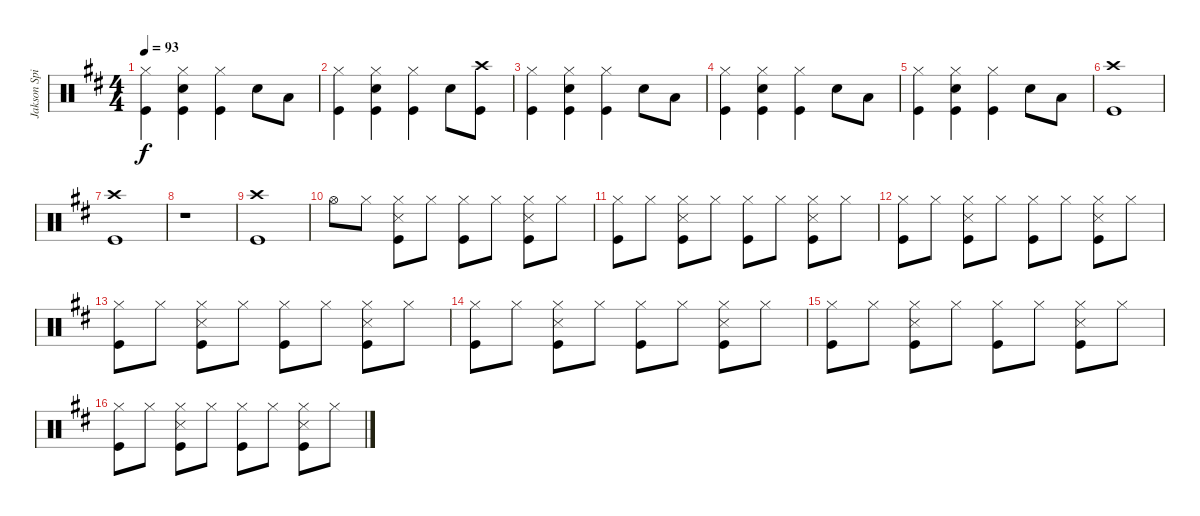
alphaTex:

\track ("Jakson Spires Drums" "Jakson Spi") {instrument percussion}
\staff {score}
\articulation defaults
\ts (4 4)
\tempo 93
\clef neutral
\ks bminor
("Hi-Hat (closed)" "Kick (hit)").4{dy f} ("Hi-Hat (closed)" "Snare (hit) 2" "Kick (hit)").4 ("Hi-Hat (closed)" "Kick (hit)").4 "Snare (hit) 2".8 "Low Tom (hit)".8 |
("Hi-Hat (closed)" "Kick (hit)").4 ("Hi-Hat (closed)" "Snare (hit) 2" "Kick (hit)").4 ("Hi-Hat (closed)" "Kick (hit)").4 "Snare (hit) 2".8 ("Crash high (hit)" "Kick (hit)").8 |
("Hi-Hat (closed)" "Kick (hit)").4 ("Hi-Hat (closed)" "Snare (hit) 2" "Kick (hit)").4 ("Hi-Hat (closed)" "Kick (hit)").4 "Snare (hit) 2".8 "Low Tom (hit)".8 |
("Hi-Hat (closed)" "Kick (hit)").4 ("Hi-Hat (closed)" "Snare (hit) 2" "Kick (hit)").4 ("Hi-Hat (closed)" "Kick (hit)").4 "Snare (hit) 2".8 "Low Tom (hit)".8 |
("Hi-Hat (closed)" "Kick (hit)").4 ("Hi-Hat (closed)" "Snare (hit) 2" "Kick (hit)").4 ("Hi-Hat (closed)" "Kick (hit)").4 "Snare (hit) 2".8 "Low Tom (hit)".8 |
("Crash high (hit)" "Kick (hit)").1 |
("Crash high (hit)" "Kick (hit)").1 |
r.1 |
("Crash high (hit)" "Kick (hit)").1 |
"Hi-Hat (open)".8 "Hi-Hat (closed)".8 ("Hi-Hat (closed)" "Snare (side stick) 3" "Kick (hit)").8 "Hi-Hat (closed)".8 ("Hi-Hat (closed)" "Kick (hit)").8 "Hi-Hat (closed)".8 ("Hi-Hat (closed)" "Snare (side stick) 3" "Kick (hit)").8 "Hi-Hat (closed)".8 |
("Hi-Hat (closed)" "Kick (hit)").8 "Hi-Hat (closed)".8 ("Hi-Hat (closed)" "Snare (side stick) 3" "Kick (hit)").8 "Hi-Hat (closed)".8 ("Hi-Hat (closed)" "Kick (hit)").8 "Hi-Hat (closed)".8 ("Hi-Hat (closed)" "Snare (side stick) 3" "Kick (hit)").8 "Hi-Hat (closed)".8 |
("Hi-Hat (closed)" "Kick (hit)").8 "Hi-Hat (closed)".8 ("Hi-Hat (closed)" "Snare (side stick) 3" "Kick (hit)").8 "Hi-Hat (closed)".8 ("Hi-Hat (closed)" "Kick (hit)").8 "Hi-Hat (closed)".8 ("Hi-Hat (closed)" "Snare (side stick) 3" "Kick (hit)").8 "Hi-Hat (closed)".8 |
("Hi-Hat (closed)" "Kick (hit)").8 "Hi-Hat (closed)".8 ("Hi-Hat (closed)" "Snare (side stick) 3" "Kick (hit)").8 "Hi-Hat (closed)".8 ("Hi-Hat (closed)" "Kick (hit)").8 "Hi-Hat (closed)".8 ("Hi-Hat (closed)" "Snare (side stick) 3" "Kick (hit)").8 "Hi-Hat (closed)".8 |
("Hi-Hat (closed)" "Kick (hit)").8 "Hi-Hat (closed)".8 ("Hi-Hat (closed)" "Snare (side stick) 3" "Kick (hit)").8 "Hi-Hat (closed)".8 ("Hi-Hat (closed)" "Kick (hit)").8 "Hi-Hat (closed)".8 ("Hi-Hat (closed)" "Snare (side stick) 3" "Kick (hit)").8 "Hi-Hat (closed)".8 |
("Hi-Hat (closed)" "Kick (hit)").8 "Hi-Hat (closed)".8 ("Hi-Hat (closed)" "Snare (side stick) 3" "Kick (hit)").8 "Hi-Hat (closed)".8 ("Hi-Hat (closed)" "Kick (hit)").8 "Hi-Hat (closed)".8 ("Hi-Hat (closed)" "Snare (side stick) 3" "Kick (hit)").8 "Hi-Hat (closed)".8 |
("Hi-Hat (closed)" "Kick (hit)").8 "Hi-Hat (closed)".8 ("Hi-Hat (closed)" "Snare (side stick) 3" "Kick (hit)").8 "Hi-Hat (closed)".8 ("Hi-Hat (closed)" "Kick (hit)").8 "Hi-Hat (closed)".8 ("Hi-Hat (closed)" "Snare (side stick) 3" "Kick (hit)").8 "Hi-Hat (closed)".8
